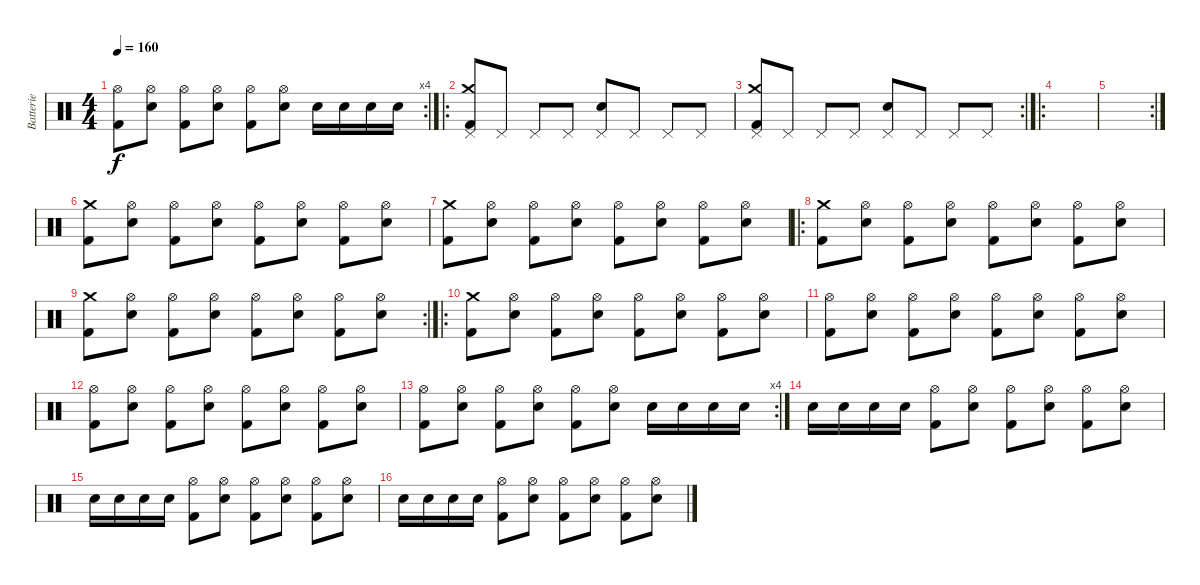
\track ("Batterie" "Batterie") {instrument percussion}
\staff {score}
\articulation defaults
\rc 4
\ts (4 4)
\tempo 160
\clef neutral
\ks c
("Kick (hit) 2" "Hi-Hat (open)").8{dy f} ("Electric Snare (hit)" "Hi-Hat (open)").8 ("Kick (hit) 2" "Hi-Hat (open)").8 ("Electric Snare (hit)" "Hi-Hat (open)").8 ("Kick (hit) 2" "Hi-Hat (open)").8 ("Electric Snare (hit)" "Hi-Hat (open)").8 "Electric Snare (hit)".16 "Electric Snare (hit)".16 "Electric Snare (hit)".16 "Electric Snare (hit)".16 |
\ro
("Crash medium (hit)" "Pedal Hi-Hat (hit)" "Kick (hit) 2").8 "Pedal Hi-Hat (hit)".8 "Pedal Hi-Hat (hit)".8 "Pedal Hi-Hat (hit)".8 ("Electric Snare (hit)" "Pedal Hi-Hat (hit)").8 "Pedal Hi-Hat (hit)".8 "Pedal Hi-Hat (hit)".8 "Pedal Hi-Hat (hit)".8 |
\rc 2
("Crash medium (hit)" "Pedal Hi-Hat (hit)" "Kick (hit) 2").8 "Pedal Hi-Hat (hit)".8 "Pedal Hi-Hat (hit)".8 "Pedal Hi-Hat (hit)".8 ("Electric Snare (hit)" "Pedal Hi-Hat (hit)").8 "Pedal Hi-Hat (hit)".8 "Pedal Hi-Hat (hit)".8 "Pedal Hi-Hat (hit)".8 |
\ro
|
\rc 2
|
("Kick (hit) 2" "Crash medium (hit)").8 ("Electric Snare (hit)" "Hi-Hat (open)").8 ("Kick (hit) 2" "Hi-Hat (open)").8 ("Electric Snare (hit)" "Hi-Hat (open)").8 ("Kick (hit) 2" "Hi-Hat (open)").8 ("Electric Snare (hit)" "Hi-Hat (open)").8 ("Kick (hit) 2" "Hi-Hat (open)").8 ("Electric Snare (hit)" "Hi-Hat (open)").8 |
("Kick (hit) 2" "Crash medium (hit)").8 ("Electric Snare (hit)" "Hi-Hat (open)").8 ("Kick (hit) 2" "Hi-Hat (open)").8 ("Electric Snare (hit)" "Hi-Hat (open)").8 ("Kick (hit) 2" "Hi-Hat (open)").8 ("Electric Snare (hit)" "Hi-Hat (open)").8 ("Kick (hit) 2" "Hi-Hat (open)").8 ("Electric Snare (hit)" "Hi-Hat (open)").8 |
\ro
("Kick (hit) 2" "Crash medium (hit)").8 ("Electric Snare (hit)" "Hi-Hat (open)").8 ("Kick (hit) 2" "Hi-Hat (open)").8 ("Electric Snare (hit)" "Hi-Hat (open)").8 ("Kick (hit) 2" "Hi-Hat (open)").8 ("Electric Snare (hit)" "Hi-Hat (open)").8 ("Kick (hit) 2" "Hi-Hat (open)").8 ("Electric Snare (hit)" "Hi-Hat (open)").8 |
\rc 2
("Kick (hit) 2" "Crash medium (hit)").8 ("Electric Snare (hit)" "Hi-Hat (open)").8 ("Kick (hit) 2" "Hi-Hat (open)").8 ("Electric Snare (hit)" "Hi-Hat (open)").8 ("Kick (hit) 2" "Hi-Hat (open)").8 ("Electric Snare (hit)" "Hi-Hat (open)").8 ("Kick (hit) 2" "Hi-Hat (open)").8 ("Electric Snare (hit)" "Hi-Hat (open)").8 |
\ro
("Kick (hit) 2" "Crash medium (hit)").8 ("Electric Snare (hit)" "Hi-Hat (open)").8 ("Kick (hit) 2" "Hi-Hat (open)").8 ("Electric Snare (hit)" "Hi-Hat (open)").8 ("Kick (hit) 2" "Hi-Hat (open)").8 ("Electric Snare (hit)" "Hi-Hat (open)").8 ("Kick (hit) 2" "Hi-Hat (open)").8 ("Electric Snare (hit)" "Hi-Hat (open)").8 |
("Kick (hit) 2" "Hi-Hat (open)").8 ("Electric Snare (hit)" "Hi-Hat (open)").8 ("Kick (hit) 2" "Hi-Hat (open)").8 ("Electric Snare (hit)" "Hi-Hat (open)").8 ("Kick (hit) 2" "Hi-Hat (open)").8 ("Electric Snare (hit)" "Hi-Hat (open)").8 ("Kick (hit) 2" "Hi-Hat (open)").8 ("Electric Snare (hit)" "Hi-Hat (open)").8 |
("Kick (hit) 2" "Hi-Hat (open)").8 ("Electric Snare (hit)" "Hi-Hat (open)").8 ("Kick (hit) 2" "Hi-Hat (open)").8 ("Electric Snare (hit)" "Hi-Hat (open)").8 ("Kick (hit) 2" "Hi-Hat (open)").8 ("Electric Snare (hit)" "Hi-Hat (open)").8 ("Kick (hit) 2" "Hi-Hat (open)").8 ("Electric Snare (hit)" "Hi-Hat (open)").8 |
\rc 4
("Kick (hit) 2" "Hi-Hat (open)").8 ("Electric Snare (hit)" "Hi-Hat (open)").8 ("Kick (hit) 2" "Hi-Hat (open)").8 ("Electric Snare (hit)" "Hi-Hat (open)").8 ("Kick (hit) 2" "Hi-Hat (open)").8 ("Electric Snare (hit)" "Hi-Hat (open)").8 "Electric Snare (hit)".16 "Electric Snare (hit)".16 "Electric Snare (hit)".16 "Electric Snare (hit)".16 |
"Electric Snare (hit)".16 "Electric Snare (hit)".16 "Electric Snare (hit)".16 "Electric Snare (hit)".16 ("Kick (hit) 2" "Hi-Hat (open)").8 ("Electric Snare (hit)" "Hi-Hat (open)").8 ("Kick (hit) 2" "Hi-Hat (open)").8 ("Electric Snare (hit)" "Hi-Hat (open)").8 ("Kick (hit) 2" "Hi-Hat (open)").8 ("Electric Snare (hit)" "Hi-Hat (open)").8 |
"Electric Snare (hit)".16 "Electric Snare (hit)".16 "Electric Snare (hit)".16 "Electric Snare (hit)".16 ("Kick (hit) 2" "Hi-Hat (open)").8 ("Electric Snare (hit)" "Hi-Hat (open)").8 ("Kick (hit) 2" "Hi-Hat (open)").8 ("Electric Snare (hit)" "Hi-Hat (open)").8 ("Kick (hit) 2" "Hi-Hat (open)").8 ("Electric Snare (hit)" "Hi-Hat (open)").8 |
"Electric Snare (hit)".16 "Electric Snare (hit)".16 "Electric Snare (hit)".16 "Electric Snare (hit)".16 ("Kick (hit) 2" "Hi-Hat (open)").8 ("Electric Snare (hit)" "Hi-Hat (open)").8 ("Kick (hit) 2" "Hi-Hat (open)").8 ("Electric Snare (hit)" "Hi-Hat (open)").8 ("Kick (hit) 2" "Hi-Hat (open)").8 ("Electric Snare (hit)" "Hi-Hat (open)").8
